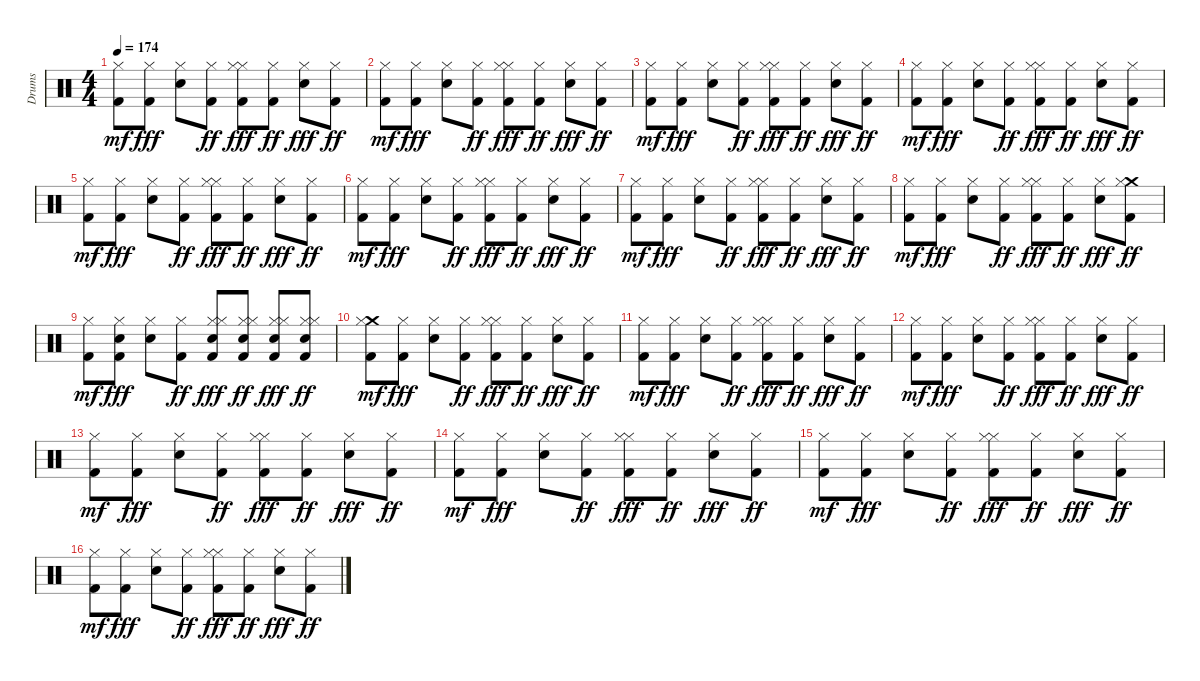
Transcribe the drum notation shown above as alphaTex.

\track ("Drums" "Drums") {instrument percussion}
\staff {score}
\articulation defaults
\ts (4 4)
\tempo 174
\clef neutral
\ks c
("Kick (hit) 2" "Hi-Hat (closed)").8{dy mf} ("Hi-Hat (closed)" "Kick (hit) 2").8{dy fff} ("Hi-Hat (closed)" "Snare (hit) 2").8 ("Hi-Hat (closed)" "Kick (hit) 2").8{dy ff} ("Hi-Hat (closed)" "Hi-Hat (closed)" "Kick (hit) 2").8{dy fff} ("Hi-Hat (closed)" "Kick (hit) 2").8{dy ff} ("Hi-Hat (closed)" "Snare (hit) 2").8{dy fff} ("Hi-Hat (closed)" "Kick (hit) 2").8{dy ff} |
("Kick (hit) 2" "Hi-Hat (closed)").8{dy mf} ("Hi-Hat (closed)" "Kick (hit) 2").8{dy fff} ("Hi-Hat (closed)" "Snare (hit) 2").8 ("Hi-Hat (closed)" "Kick (hit) 2").8{dy ff} ("Hi-Hat (closed)" "Hi-Hat (closed)" "Kick (hit) 2").8{dy fff} ("Hi-Hat (closed)" "Kick (hit) 2").8{dy ff} ("Hi-Hat (closed)" "Snare (hit) 2").8{dy fff} ("Hi-Hat (closed)" "Kick (hit) 2").8{dy ff} |
("Kick (hit) 2" "Hi-Hat (closed)").8{dy mf} ("Hi-Hat (closed)" "Kick (hit) 2").8{dy fff} ("Hi-Hat (closed)" "Snare (hit) 2").8 ("Hi-Hat (closed)" "Kick (hit) 2").8{dy ff} ("Hi-Hat (closed)" "Hi-Hat (closed)" "Kick (hit) 2").8{dy fff} ("Hi-Hat (closed)" "Kick (hit) 2").8{dy ff} ("Hi-Hat (closed)" "Snare (hit) 2").8{dy fff} ("Hi-Hat (closed)" "Kick (hit) 2").8{dy ff} |
("Kick (hit) 2" "Hi-Hat (closed)").8{dy mf} ("Hi-Hat (closed)" "Kick (hit) 2").8{dy fff} ("Hi-Hat (closed)" "Snare (hit) 2").8 ("Hi-Hat (closed)" "Kick (hit) 2").8{dy ff} ("Hi-Hat (closed)" "Hi-Hat (closed)" "Kick (hit) 2").8{dy fff} ("Hi-Hat (closed)" "Kick (hit) 2").8{dy ff} ("Hi-Hat (closed)" "Snare (hit) 2").8{dy fff} ("Hi-Hat (closed)" "Kick (hit) 2").8{dy ff} |
("Kick (hit) 2" "Hi-Hat (closed)").8{dy mf} ("Hi-Hat (closed)" "Kick (hit) 2").8{dy fff} ("Hi-Hat (closed)" "Snare (hit) 2").8 ("Hi-Hat (closed)" "Kick (hit) 2").8{dy ff} ("Hi-Hat (closed)" "Hi-Hat (closed)" "Kick (hit) 2").8{dy fff} ("Hi-Hat (closed)" "Kick (hit) 2").8{dy ff} ("Hi-Hat (closed)" "Snare (hit) 2").8{dy fff} ("Hi-Hat (closed)" "Kick (hit) 2").8{dy ff} |
("Kick (hit) 2" "Hi-Hat (closed)").8{dy mf} ("Hi-Hat (closed)" "Kick (hit) 2").8{dy fff} ("Hi-Hat (closed)" "Snare (hit) 2").8 ("Hi-Hat (closed)" "Kick (hit) 2").8{dy ff} ("Hi-Hat (closed)" "Hi-Hat (closed)" "Kick (hit) 2").8{dy fff} ("Hi-Hat (closed)" "Kick (hit) 2").8{dy ff} ("Hi-Hat (closed)" "Snare (hit) 2").8{dy fff} ("Hi-Hat (closed)" "Kick (hit) 2").8{dy ff} |
("Kick (hit) 2" "Hi-Hat (closed)").8{dy mf} ("Hi-Hat (closed)" "Kick (hit) 2").8{dy fff} ("Hi-Hat (closed)" "Snare (hit) 2").8 ("Hi-Hat (closed)" "Kick (hit) 2").8{dy ff} ("Hi-Hat (closed)" "Hi-Hat (closed)" "Kick (hit) 2").8{dy fff} ("Hi-Hat (closed)" "Kick (hit) 2").8{dy ff} ("Hi-Hat (closed)" "Snare (hit) 2").8{dy fff} ("Hi-Hat (closed)" "Kick (hit) 2").8{dy ff} |
("Kick (hit) 2" "Hi-Hat (closed)").8{dy mf} ("Hi-Hat (closed)" "Kick (hit) 2").8{dy fff} ("Hi-Hat (closed)" "Snare (hit) 2").8 ("Hi-Hat (closed)" "Kick (hit) 2").8{dy ff} ("Hi-Hat (closed)" "Hi-Hat (closed)" "Kick (hit) 2").8{dy fff} ("Hi-Hat (closed)" "Kick (hit) 2").8{dy ff} ("Hi-Hat (closed)" "Snare (hit) 2").8{dy fff} ("Crash medium (hit)" "Hi-Hat (closed)" "Kick (hit) 2").8{dy ff} |
("Kick (hit) 2" "Hi-Hat (closed)").8{dy mf} ("Hi-Hat (closed)" "Snare (hit) 2" "Kick (hit) 2").8{dy fff} ("Hi-Hat (closed)" "Snare (hit) 2").8 ("Hi-Hat (closed)" "Kick (hit) 2").8{dy ff} ("Hi-Hat (closed)" "Hi-Hat (closed)" "Kick (hit) 2" "Snare (hit) 2").8{dy fff} ("Hi-Hat (closed)" "Hi-Hat (closed)" "Kick (hit) 2" "Snare (hit) 2").8{dy ff} ("Hi-Hat (closed)" "Hi-Hat (closed)" "Kick (hit) 2" "Snare (hit) 2").8{dy fff} ("Hi-Hat (closed)" "Hi-Hat (closed)" "Kick (hit) 2" "Snare (hit) 2").8{dy ff} |
("Crash medium (hit)" "Hi-Hat (closed)" "Kick (hit) 2").8{dy mf} ("Hi-Hat (closed)" "Kick (hit) 2").8{dy fff} ("Hi-Hat (closed)" "Snare (hit) 2").8 ("Hi-Hat (closed)" "Kick (hit) 2").8{dy ff} ("Hi-Hat (closed)" "Hi-Hat (closed)" "Kick (hit) 2").8{dy fff} ("Hi-Hat (closed)" "Kick (hit) 2").8{dy ff} ("Hi-Hat (closed)" "Snare (hit) 2").8{dy fff} ("Hi-Hat (closed)" "Kick (hit) 2").8{dy ff} |
("Kick (hit) 2" "Hi-Hat (closed)").8{dy mf} ("Hi-Hat (closed)" "Kick (hit) 2").8{dy fff} ("Hi-Hat (closed)" "Snare (hit) 2").8 ("Hi-Hat (closed)" "Kick (hit) 2").8{dy ff} ("Hi-Hat (closed)" "Hi-Hat (closed)" "Kick (hit) 2").8{dy fff} ("Hi-Hat (closed)" "Kick (hit) 2").8{dy ff} ("Hi-Hat (closed)" "Snare (hit) 2").8{dy fff} ("Hi-Hat (closed)" "Kick (hit) 2").8{dy ff} |
("Kick (hit) 2" "Hi-Hat (closed)").8{dy mf} ("Hi-Hat (closed)" "Kick (hit) 2").8{dy fff} ("Hi-Hat (closed)" "Snare (hit) 2").8 ("Hi-Hat (closed)" "Kick (hit) 2").8{dy ff} ("Hi-Hat (closed)" "Hi-Hat (closed)" "Kick (hit) 2").8{dy fff} ("Hi-Hat (closed)" "Kick (hit) 2").8{dy ff} ("Hi-Hat (closed)" "Snare (hit) 2").8{dy fff} ("Hi-Hat (closed)" "Kick (hit) 2").8{dy ff} |
("Kick (hit) 2" "Hi-Hat (closed)").8{dy mf} ("Hi-Hat (closed)" "Kick (hit) 2").8{dy fff} ("Hi-Hat (closed)" "Snare (hit) 2").8 ("Hi-Hat (closed)" "Kick (hit) 2").8{dy ff} ("Hi-Hat (closed)" "Hi-Hat (closed)" "Kick (hit) 2").8{dy fff} ("Hi-Hat (closed)" "Kick (hit) 2").8{dy ff} ("Hi-Hat (closed)" "Snare (hit) 2").8{dy fff} ("Hi-Hat (closed)" "Kick (hit) 2").8{dy ff} |
("Kick (hit) 2" "Hi-Hat (closed)").8{dy mf} ("Hi-Hat (closed)" "Kick (hit) 2").8{dy fff} ("Hi-Hat (closed)" "Snare (hit) 2").8 ("Hi-Hat (closed)" "Kick (hit) 2").8{dy ff} ("Hi-Hat (closed)" "Hi-Hat (closed)" "Kick (hit) 2").8{dy fff} ("Hi-Hat (closed)" "Kick (hit) 2").8{dy ff} ("Hi-Hat (closed)" "Snare (hit) 2").8{dy fff} ("Hi-Hat (closed)" "Kick (hit) 2").8{dy ff} |
("Kick (hit) 2" "Hi-Hat (closed)").8{dy mf} ("Hi-Hat (closed)" "Kick (hit) 2").8{dy fff} ("Hi-Hat (closed)" "Snare (hit) 2").8 ("Hi-Hat (closed)" "Kick (hit) 2").8{dy ff} ("Hi-Hat (closed)" "Hi-Hat (closed)" "Kick (hit) 2").8{dy fff} ("Hi-Hat (closed)" "Kick (hit) 2").8{dy ff} ("Hi-Hat (closed)" "Snare (hit) 2").8{dy fff} ("Hi-Hat (closed)" "Kick (hit) 2").8{dy ff} |
("Kick (hit) 2" "Hi-Hat (closed)").8{dy mf} ("Hi-Hat (closed)" "Kick (hit) 2").8{dy fff} ("Hi-Hat (closed)" "Snare (hit) 2").8 ("Hi-Hat (closed)" "Kick (hit) 2").8{dy ff} ("Hi-Hat (closed)" "Hi-Hat (closed)" "Kick (hit) 2").8{dy fff} ("Hi-Hat (closed)" "Kick (hit) 2").8{dy ff} ("Hi-Hat (closed)" "Snare (hit) 2").8{dy fff} ("Hi-Hat (closed)" "Kick (hit) 2").8{dy ff}
